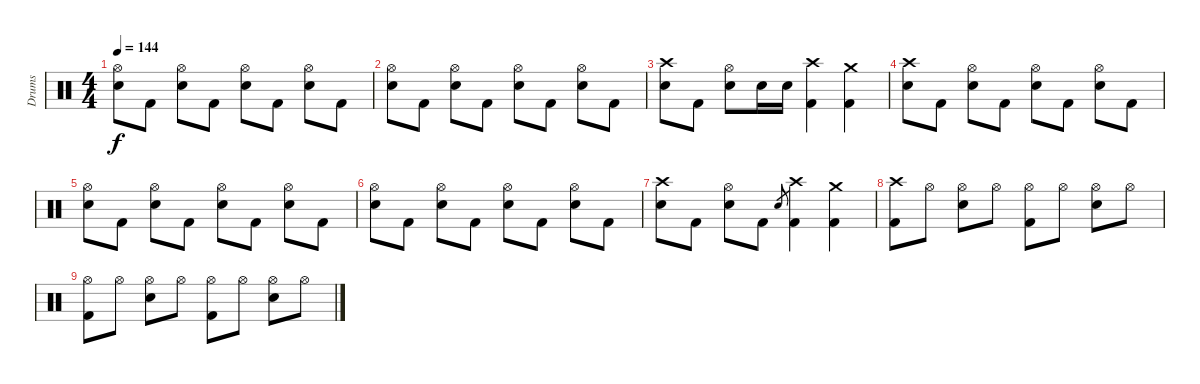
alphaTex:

\track ("Drums" "Drums") {instrument percussion}
\staff {score}
\articulation defaults
\ts (4 4)
\tempo 144
\clef neutral
\ks c
("Hi-Hat (open)" "Electric Snare (hit)").8{dy f} "Kick (hit) 2".8 ("Hi-Hat (open)" "Electric Snare (hit)").8 "Kick (hit) 2".8 ("Hi-Hat (open)" "Electric Snare (hit)").8 "Kick (hit) 2".8 ("Hi-Hat (open)" "Electric Snare (hit)").8 "Kick (hit) 2".8 |
("Hi-Hat (open)" "Electric Snare (hit)").8 "Kick (hit) 2".8 ("Hi-Hat (open)" "Electric Snare (hit)").8 "Kick (hit) 2".8 ("Hi-Hat (open)" "Electric Snare (hit)").8 "Kick (hit) 2".8 ("Hi-Hat (open)" "Electric Snare (hit)").8 "Kick (hit) 2".8 |
("Crash high (hit)" "Electric Snare (hit)").8 "Kick (hit) 2".8 ("Hi-Hat (open)" "Electric Snare (hit)").8 "Electric Snare (hit)".16 "Electric Snare (hit)".16 ("Crash high (hit)" "Kick (hit) 2").4 ("Crash medium (hit)" "Kick (hit) 2").4 |
("Crash high (hit)" "Electric Snare (hit)").8 "Kick (hit) 2".8 ("Hi-Hat (open)" "Electric Snare (hit)").8 "Kick (hit) 2".8 ("Hi-Hat (open)" "Electric Snare (hit)").8 "Kick (hit) 2".8 ("Hi-Hat (open)" "Electric Snare (hit)").8 "Kick (hit) 2".8 |
("Hi-Hat (open)" "Electric Snare (hit)").8 "Kick (hit) 2".8 ("Hi-Hat (open)" "Electric Snare (hit)").8 "Kick (hit) 2".8 ("Hi-Hat (open)" "Electric Snare (hit)").8 "Kick (hit) 2".8 ("Hi-Hat (open)" "Electric Snare (hit)").8 "Kick (hit) 2".8 |
("Hi-Hat (open)" "Electric Snare (hit)").8 "Kick (hit) 2".8 ("Hi-Hat (open)" "Electric Snare (hit)").8 "Kick (hit) 2".8 ("Hi-Hat (open)" "Electric Snare (hit)").8 "Kick (hit) 2".8 ("Hi-Hat (open)" "Electric Snare (hit)").8 "Kick (hit) 2".8 |
("Crash high (hit)" "Electric Snare (hit)").8 "Kick (hit) 2".8 ("Hi-Hat (open)" "Electric Snare (hit)").8 "Kick (hit) 2".8 "Electric Snare (hit)".8{gr} ("Crash high (hit)" "Kick (hit) 2").4 ("Crash medium (hit)" "Kick (hit) 2").4 |
("Crash high (hit)" "Kick (hit) 2").8 "Hi-Hat (open)".8 ("Hi-Hat (open)" "Electric Snare (hit)").8 "Hi-Hat (open)".8 ("Hi-Hat (open)" "Kick (hit) 2").8 "Hi-Hat (open)".8 ("Hi-Hat (open)" "Electric Snare (hit)").8 "Hi-Hat (open)".8 |
("Hi-Hat (open)" "Kick (hit) 2").8 "Hi-Hat (open)".8 ("Hi-Hat (open)" "Electric Snare (hit)").8 "Hi-Hat (open)".8 ("Hi-Hat (open)" "Kick (hit) 2").8 "Hi-Hat (open)".8 ("Hi-Hat (open)" "Electric Snare (hit)").8 "Hi-Hat (open)".8
